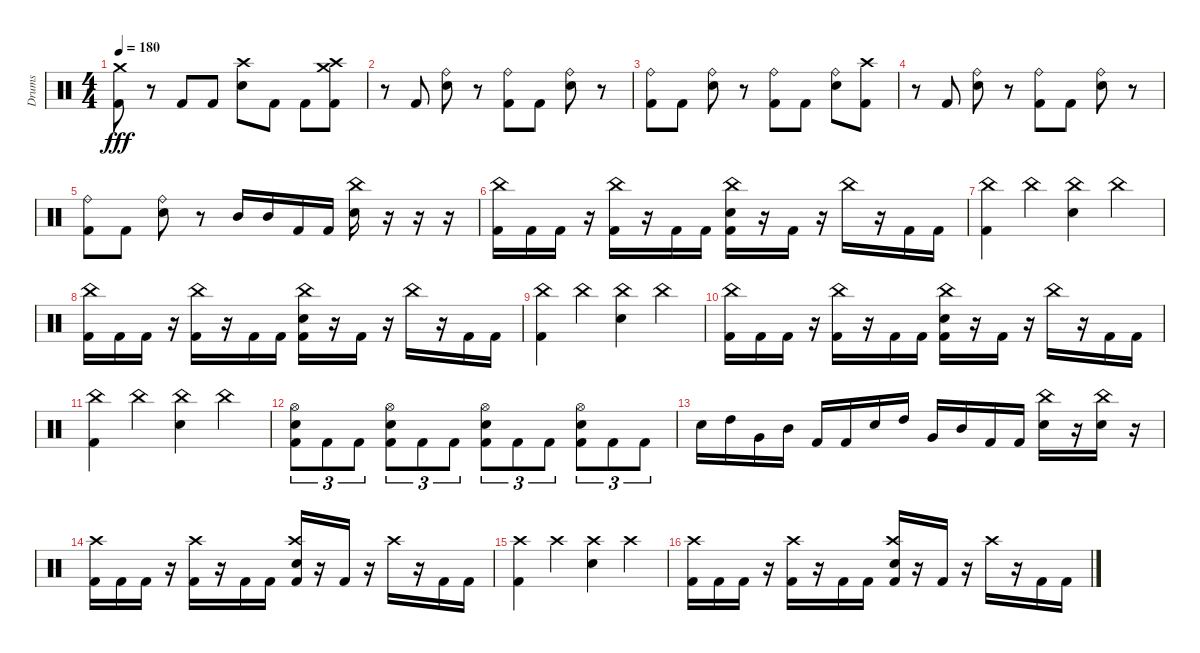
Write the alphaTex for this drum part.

\track ("Drums" "Drums") {instrument percussion}
\staff {score}
\articulation defaults
\ts (4 4)
\tempo 180
\clef neutral
\ks c
("Crash medium (hit)" "Kick (hit) 2").8{dy fff} r.8 "Kick (hit) 2".8 "Kick (hit) 2".8 ("Crash high (hit)" "Electric Snare (hit)").8 "Kick (hit) 2".8 "Kick (hit) 2".8 ("Crash high (hit)" "Crash medium (hit)" "Kick (hit) 2").8 |
r.8 "Kick (hit) 2".8 ("Ride (bell)" "Electric Snare (hit)").8 r.8 ("Ride (bell)" "Kick (hit) 2").8 "Kick (hit) 2".8 ("Ride (bell)" "Electric Snare (hit)").8 r.8 |
("Ride (bell)" "Kick (hit) 2").8 "Kick (hit) 2".8 ("Ride (bell)" "Electric Snare (hit)").8 r.8 ("Ride (bell)" "Kick (hit) 2").8 "Kick (hit) 2".8 ("Ride (bell)" "Electric Snare (hit)").8 ("Crash high (hit)" "Kick (hit) 2").8 |
r.8 "Kick (hit) 2".8 ("Ride (bell)" "Electric Snare (hit)").8 r.8 ("Ride (bell)" "Kick (hit) 2").8 "Kick (hit) 2".8 ("Ride (bell)" "Electric Snare (hit)").8 r.8 |
("Ride (bell)" "Kick (hit) 2").8 "Kick (hit) 2".8 ("Ride (bell)" "Electric Snare (hit)").8 r.8 "Mid Tom (hit)".16 "Mid Tom (hit)".16 "Kick (hit) 2".16 "Kick (hit) 2".16 ("China (hit)" "Electric Snare (hit)").16 r.16 r.16 r.16 |
("China (hit)" "Kick (hit) 2").16 "Kick (hit) 2".16 "Kick (hit) 2".16 r.16 ("China (hit)" "Kick (hit) 2").16 r.16 "Kick (hit) 2".16 "Kick (hit) 2".16 ("China (hit)" "Electric Snare (hit)" "Kick (hit) 2").16 r.16 "Kick (hit) 2".16 r.16 "China (hit)".16 r.16 "Kick (hit) 2".16 "Kick (hit) 2".16 |
("China (hit)" "Kick (hit) 2").4 "China (hit)".4 ("China (hit)" "Electric Snare (hit)").4 "China (hit)".4 |
("China (hit)" "Kick (hit) 2").16 "Kick (hit) 2".16 "Kick (hit) 2".16 r.16 ("China (hit)" "Kick (hit) 2").16 r.16 "Kick (hit) 2".16 "Kick (hit) 2".16 ("China (hit)" "Electric Snare (hit)" "Kick (hit) 2").16 r.16 "Kick (hit) 2".16 r.16 "China (hit)".16 r.16 "Kick (hit) 2".16 "Kick (hit) 2".16 |
("China (hit)" "Kick (hit) 2").4 "China (hit)".4 ("China (hit)" "Electric Snare (hit)").4 "China (hit)".4 |
("China (hit)" "Kick (hit) 2").16 "Kick (hit) 2".16 "Kick (hit) 2".16 r.16 ("China (hit)" "Kick (hit) 2").16 r.16 "Kick (hit) 2".16 "Kick (hit) 2".16 ("China (hit)" "Electric Snare (hit)" "Kick (hit) 2").16 r.16 "Kick (hit) 2".16 r.16 "China (hit)".16 r.16 "Kick (hit) 2".16 "Kick (hit) 2".16 |
("China (hit)" "Kick (hit) 2").4 "China (hit)".4 ("China (hit)" "Electric Snare (hit)").4 "China (hit)".4 |
("Hi-Hat (open)" "Electric Snare (hit)" "Kick (hit) 2").8{tu (3 2)} "Kick (hit) 2".8{tu (3 2)} "Kick (hit) 2".8{tu (3 2)} ("Hi-Hat (open)" "Electric Snare (hit)" "Kick (hit) 2").8{tu (3 2)} "Kick (hit) 2".8{tu (3 2)} "Kick (hit) 2".8{tu (3 2)} ("Hi-Hat (open)" "Electric Snare (hit)" "Kick (hit) 2").8{tu (3 2)} "Kick (hit) 2".8{tu (3 2)} "Kick (hit) 2".8{tu (3 2)} ("Hi-Hat (open)" "Electric Snare (hit)" "Kick (hit) 2").8{tu (3 2)} "Kick (hit) 2".8{tu (3 2)} "Kick (hit) 2".8{tu (3 2)} |
"Electric Snare (hit)".16 "High Tom (hit)".16 "Very Low Tom (hit)".16 "Mid Tom (hit)".16 "Kick (hit) 2".16 "Kick (hit) 2".16 "Electric Snare (hit)".16 "High Tom (hit)".16 "Very Low Tom (hit)".16 "Mid Tom (hit)".16 "Kick (hit) 2".16 "Kick (hit) 2".16 ("China (hit)" "Electric Snare (hit)").16 r.16 ("China (hit)" "Electric Snare (hit)").16 r.16 |
("Crash high (hit)" "Kick (hit) 2").16 "Kick (hit) 2".16 "Kick (hit) 2".16 r.16 ("Crash high (hit)" "Kick (hit) 2").16 r.16 "Kick (hit) 2".16 "Kick (hit) 2".16 ("Crash high (hit)" "Electric Snare (hit)" "Kick (hit) 2").16 r.16 "Kick (hit) 2".16 r.16 "Crash high (hit)".16 r.16 "Kick (hit) 2".16 "Kick (hit) 2".16 |
("Crash high (hit)" "Kick (hit) 2").4 "Crash high (hit)".4 ("Crash high (hit)" "Electric Snare (hit)").4 "Crash high (hit)".4 |
("Crash high (hit)" "Kick (hit) 2").16 "Kick (hit) 2".16 "Kick (hit) 2".16 r.16 ("Crash high (hit)" "Kick (hit) 2").16 r.16 "Kick (hit) 2".16 "Kick (hit) 2".16 ("Crash high (hit)" "Electric Snare (hit)" "Kick (hit) 2").16 r.16 "Kick (hit) 2".16 r.16 "Crash high (hit)".16 r.16 "Kick (hit) 2".16 "Kick (hit) 2".16
